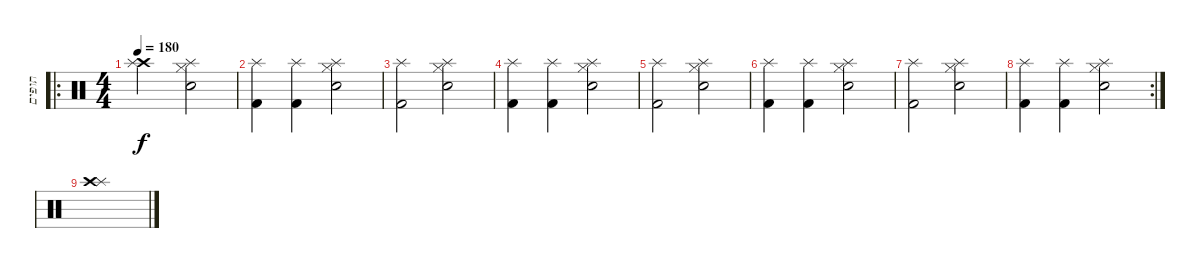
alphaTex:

\track ("תופים" "תופים") {instrument percussion}
\staff {score}
\articulation defaults
\ro
\ts (4 4)
\tempo 180
\clef neutral
\ks c
("Crash high (hit)" "Splash (hit)").2{dy f} ("Hi-Hat (closed)" "Snare (hit) 2" "Splash (hit)").2 |
("Kick (hit) 2" "Splash (hit)").4 ("Kick (hit) 2" "Splash (hit)").4 ("Hi-Hat (closed)" "Snare (hit) 2" "Splash (hit)").2 |
("Kick (hit) 2" "Splash (hit)").2 ("Hi-Hat (closed)" "Snare (hit) 2" "Splash (hit)").2 |
("Kick (hit) 2" "Splash (hit)").4 ("Kick (hit) 2" "Splash (hit)").4 ("Hi-Hat (closed)" "Snare (hit) 2" "Splash (hit)").2 |
("Kick (hit) 2" "Splash (hit)").2 ("Hi-Hat (closed)" "Snare (hit) 2" "Splash (hit)").2 |
("Kick (hit) 2" "Splash (hit)").4 ("Kick (hit) 2" "Splash (hit)").4 ("Hi-Hat (closed)" "Snare (hit) 2" "Splash (hit)").2 |
("Kick (hit) 2" "Splash (hit)").2 ("Hi-Hat (closed)" "Snare (hit) 2" "Splash (hit)").2 |
\rc 2
("Kick (hit) 2" "Splash (hit)").4 ("Kick (hit) 2" "Splash (hit)").4 ("Hi-Hat (closed)" "Snare (hit) 2" "Splash (hit)").2 |
("Splash (hit)" "Crash high (hit)").1
